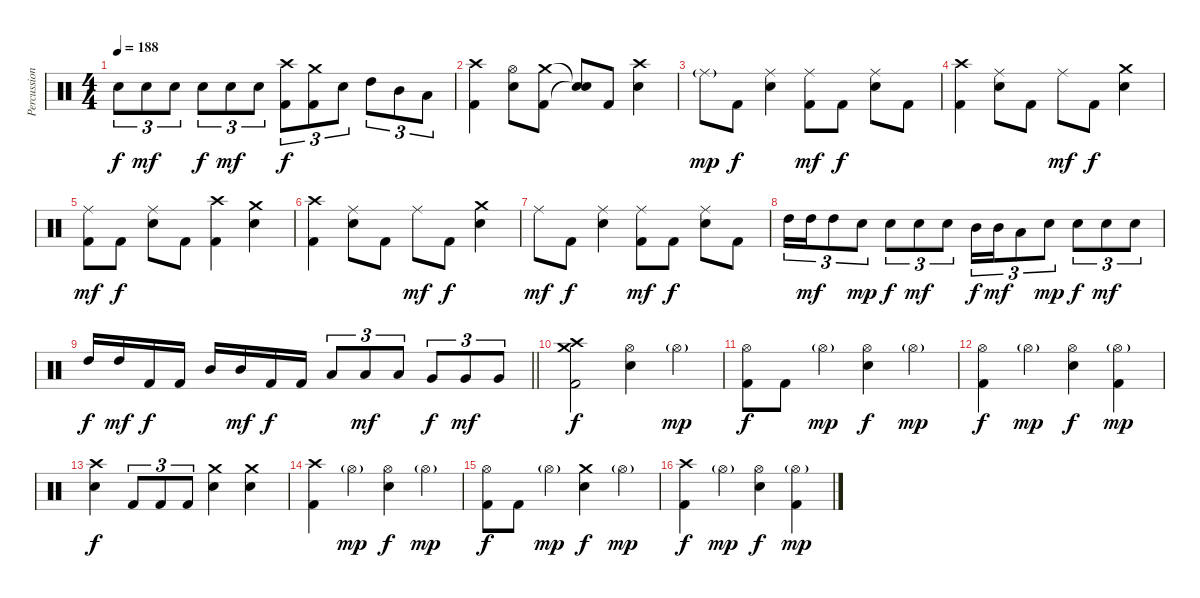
\track ("Percussion" "Percussion") {instrument percussion}
\staff {score}
\articulation defaults
\ts (4 4)
\tempo 188
\clef neutral
\ks c "Electric Snare (hit)".8{tu (3 2) dy f} "Electric Snare (hit)".8{tu (3 2) dy mf} "Electric Snare (hit)".8{tu (3 2)} "Electric Snare (hit)".8{tu (3 2) dy f} "Electric Snare (hit)".8{tu (3 2) dy mf} "Electric Snare (hit)".8{tu (3 2)}
("Crash high (hit)" "Kick (hit) 2").8{tu (3 2) dy f} ("Crash medium (hit)" "Kick (hit) 2").8{tu (3 2)} "Electric Snare (hit)".8{tu (3 2)} "High Tom (hit)".8{tu (3 2)} "Mid Tom (hit)".8{tu (3 2)} "Low Tom (hit)".8{tu (3 2)} |
("Crash high (hit)" "Kick (hit) 2").4 ("Hi-Hat (open)" "Electric Snare (hit)").8 ("Crash medium (hit)" "Kick (hit) 2").8 ("Snare (hit)"{t} "Snare (hit)"{t}).8 "Kick (hit) 2".8 ("Crash high (hit)" "Electric Snare (hit)").4 |
"Ride (middle)"{g}.8{dy mp} "Kick (hit) 2".8{dy f} ("Ride (middle)" "Electric Snare (hit)").4 ("Ride (middle)" "Kick (hit) 2").8{dy mf} "Kick (hit) 2".8{dy f} ("Ride (middle)" "Electric Snare (hit)").8 "Kick (hit) 2".8 |
("Crash high (hit)" "Kick (hit) 2").4 ("Ride (middle)" "Electric Snare (hit)").8 "Kick (hit) 2".8 "Ride (middle)".8{dy mf} "Kick (hit) 2".8{dy f} ("Crash medium (hit)" "Electric Snare (hit)").4 |
("Ride (middle)" "Kick (hit) 2").8{dy mf} "Kick (hit) 2".8{dy f} ("Ride (middle)" "Electric Snare (hit)").8 "Kick (hit) 2".8 ("Crash high (hit)" "Kick (hit) 2").4 ("Crash medium (hit)" "Electric Snare (hit)").4 |
("Crash high (hit)" "Kick (hit) 2").4 ("Ride (middle)" "Electric Snare (hit)").8 "Kick (hit) 2".8 "Ride (middle)".8{dy mf} "Kick (hit) 2".8{dy f} ("Crash medium (hit)" "Electric Snare (hit)").4 |
"Ride (middle)".8{dy mf} "Kick (hit) 2".8{dy f} ("Ride (middle)" "Electric Snare (hit)").4 ("Ride (middle)" "Kick (hit) 2").8{dy mf} "Kick (hit) 2".8{dy f} ("Ride (middle)" "Electric Snare (hit)").8 "Kick (hit) 2".8 |
"High Tom (hit)".16{tu (3 2)} "High Tom (hit)".16{tu (3 2) dy mf} "High Tom (hit)".8{tu (3 2)} "Electric Snare (hit)".8{tu (3 2) dy mp} "Electric Snare (hit)".8{tu (3 2) dy f} "Electric Snare (hit)".8{tu (3 2) dy mf} "Electric Snare (hit)".8{tu (3 2)} "Mid Tom (hit)".16{tu (3 2) dy f} "Mid Tom (hit)".16{tu (3 2) dy mf} "Low Tom (hit)".8{tu (3 2)} "Electric Snare (hit)".8{tu (3 2) dy mp} "Electric Snare (hit)".8{tu (3 2) dy f} "Electric Snare (hit)".8{tu (3 2) dy mf} "Electric Snare (hit)".8{tu (3 2)} |
\barLineRight lightlight "High Tom (hit)".16{dy f} "High Tom (hit)".16{dy mf} "Kick (hit) 2".16{dy f} "Kick (hit) 2".16 "Mid Tom (hit)".16 "Mid Tom (hit)".16{dy mf} "Kick (hit) 2".16{dy f} "Kick (hit) 2".16 "Low Tom (hit)".8{tu (3 2)} "Low Tom (hit)".8{tu (3 2) dy mf} "Low Tom (hit)".8{tu (3 2)} "Very Low Tom (hit)".8{tu (3 2) dy f} "Very Low Tom (hit)".8{tu (3 2) dy mf} "Very Low Tom (hit)".8{tu (3 2)}
|
("Crash high (hit)" "Crash medium (hit)" "Kick (hit) 2").2{dy f} ("Hi-Hat (open)" "Electric Snare (hit)").4 "Hi-Hat (open)"{g}.4{dy mp} |
("Hi-Hat (open)" "Kick (hit) 2").8{dy f} "Kick (hit) 2".8 "Hi-Hat (open)"{g}.4{dy mp} ("Hi-Hat (open)" "Electric Snare (hit)").4{dy f} "Hi-Hat (open)"{g}.4{dy mp} |
("Hi-Hat (open)" "Kick (hit) 2").4{dy f} "Hi-Hat (open)"{g}.4{dy mp} ("Hi-Hat (open)" "Electric Snare (hit)").4{dy f} ("Hi-Hat (open)"{g} "Kick (hit) 2").4{dy mp} |
("Crash high (hit)" "Electric Snare (hit)").4{dy f} "Kick (hit) 2".8{tu (3 2)} "Kick (hit) 2".8{tu (3 2)} "Kick (hit) 2".8{tu (3 2)} ("Crash medium (hit)" "Electric Snare (hit)").4 ("Crash medium (hit)" "Electric Snare (hit)").4 |
("Crash high (hit)" "Kick (hit) 2").4 "Hi-Hat (open)"{g}.4{dy mp} ("Hi-Hat (open)" "Electric Snare (hit)").4{dy f} "Hi-Hat (open)"{g}.4{dy mp} |
("Hi-Hat (open)" "Kick (hit) 2").8{dy f} "Kick (hit) 2".8 "Hi-Hat (open)"{g}.4{dy mp} ("Crash medium (hit)" "Electric Snare (hit)").4{dy f} "Hi-Hat (open)"{g}.4{dy mp} |
("Crash high (hit)" "Kick (hit) 2").4{dy f} "Hi-Hat (open)"{g}.4{dy mp} ("Hi-Hat (open)" "Electric Snare (hit)").4{dy f} ("Hi-Hat (open)"{g} "Kick (hit) 2").4{dy mp}
